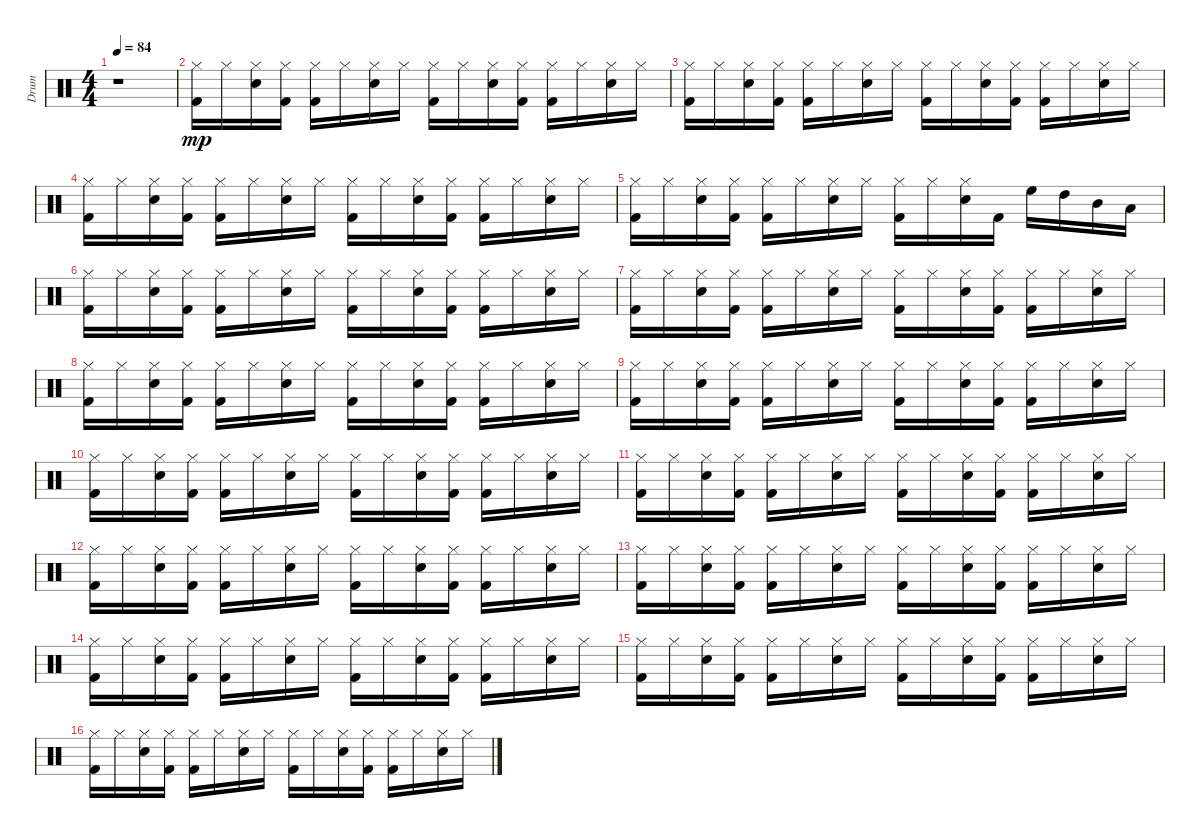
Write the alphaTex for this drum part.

\track ("Drum" "Drum") {instrument percussion}
\staff {score}
\articulation defaults
\ts (4 4)
\tempo 84
\clef neutral
\ks c
r.1{dy mp} |
("Kick (hit) 2" "Hi-Hat (closed)").16 "Hi-Hat (closed)".16 ("Snare (hit) 2" "Hi-Hat (closed)").16 ("Kick (hit) 2" "Hi-Hat (closed)").16 ("Kick (hit) 2" "Hi-Hat (closed)").16 "Hi-Hat (closed)".16 ("Snare (hit) 2" "Hi-Hat (closed)").16 "Hi-Hat (closed)".16 ("Kick (hit) 2" "Hi-Hat (closed)").16 "Hi-Hat (closed)".16 ("Snare (hit) 2" "Hi-Hat (closed)").16 ("Kick (hit) 2" "Hi-Hat (closed)").16 ("Kick (hit) 2" "Hi-Hat (closed)").16 "Hi-Hat (closed)".16 ("Snare (hit) 2" "Hi-Hat (closed)").16 "Hi-Hat (closed)".16 |
("Kick (hit) 2" "Hi-Hat (closed)").16 "Hi-Hat (closed)".16 ("Snare (hit) 2" "Hi-Hat (closed)").16 ("Kick (hit) 2" "Hi-Hat (closed)").16 ("Kick (hit) 2" "Hi-Hat (closed)").16 "Hi-Hat (closed)".16 ("Snare (hit) 2" "Hi-Hat (closed)").16 "Hi-Hat (closed)".16 ("Kick (hit) 2" "Hi-Hat (closed)").16 "Hi-Hat (closed)".16 ("Snare (hit) 2" "Hi-Hat (closed)").16 ("Kick (hit) 2" "Hi-Hat (closed)").16 ("Kick (hit) 2" "Hi-Hat (closed)").16 "Hi-Hat (closed)".16 ("Snare (hit) 2" "Hi-Hat (closed)").16 "Hi-Hat (closed)".16 |
("Kick (hit) 2" "Hi-Hat (closed)").16 "Hi-Hat (closed)".16 ("Snare (hit) 2" "Hi-Hat (closed)").16 ("Kick (hit) 2" "Hi-Hat (closed)").16 ("Kick (hit) 2" "Hi-Hat (closed)").16 "Hi-Hat (closed)".16 ("Snare (hit) 2" "Hi-Hat (closed)").16 "Hi-Hat (closed)".16 ("Kick (hit) 2" "Hi-Hat (closed)").16 "Hi-Hat (closed)".16 ("Snare (hit) 2" "Hi-Hat (closed)").16 ("Kick (hit) 2" "Hi-Hat (closed)").16 ("Kick (hit) 2" "Hi-Hat (closed)").16 "Hi-Hat (closed)".16 ("Snare (hit) 2" "Hi-Hat (closed)").16 "Hi-Hat (closed)".16 |
("Kick (hit) 2" "Hi-Hat (closed)").16 "Hi-Hat (closed)".16 ("Snare (hit) 2" "Hi-Hat (closed)").16 ("Kick (hit) 2" "Hi-Hat (closed)").16 ("Kick (hit) 2" "Hi-Hat (closed)").16 "Hi-Hat (closed)".16 ("Snare (hit) 2" "Hi-Hat (closed)").16 "Hi-Hat (closed)".16 ("Kick (hit) 2" "Hi-Hat (closed)").16 "Hi-Hat (closed)".16 ("Snare (hit) 2" "Hi-Hat (closed)").16 "Kick (hit) 2".16 "High Floor Tom (hit)".16 "High Tom (hit)".16 "Mid Tom (hit)".16 "Low Tom (hit)".16 |
("Kick (hit) 2" "Hi-Hat (closed)").16 "Hi-Hat (closed)".16 ("Snare (hit) 2" "Hi-Hat (closed)").16 ("Kick (hit) 2" "Hi-Hat (closed)").16 ("Kick (hit) 2" "Hi-Hat (closed)").16 "Hi-Hat (closed)".16 ("Snare (hit) 2" "Hi-Hat (closed)").16 "Hi-Hat (closed)".16 ("Kick (hit) 2" "Hi-Hat (closed)").16 "Hi-Hat (closed)".16 ("Snare (hit) 2" "Hi-Hat (closed)").16 ("Kick (hit) 2" "Hi-Hat (closed)").16 ("Kick (hit) 2" "Hi-Hat (closed)").16 "Hi-Hat (closed)".16 ("Snare (hit) 2" "Hi-Hat (closed)").16 "Hi-Hat (closed)".16 |
("Kick (hit) 2" "Hi-Hat (closed)").16 "Hi-Hat (closed)".16 ("Snare (hit) 2" "Hi-Hat (closed)").16 ("Kick (hit) 2" "Hi-Hat (closed)").16 ("Kick (hit) 2" "Hi-Hat (closed)").16 "Hi-Hat (closed)".16 ("Snare (hit) 2" "Hi-Hat (closed)").16 "Hi-Hat (closed)".16 ("Kick (hit) 2" "Hi-Hat (closed)").16 "Hi-Hat (closed)".16 ("Snare (hit) 2" "Hi-Hat (closed)").16 ("Kick (hit) 2" "Hi-Hat (closed)").16 ("Kick (hit) 2" "Hi-Hat (closed)").16 "Hi-Hat (closed)".16 ("Snare (hit) 2" "Hi-Hat (closed)").16 "Hi-Hat (closed)".16 |
("Kick (hit) 2" "Hi-Hat (closed)").16 "Hi-Hat (closed)".16 ("Snare (hit) 2" "Hi-Hat (closed)").16 ("Kick (hit) 2" "Hi-Hat (closed)").16 ("Kick (hit) 2" "Hi-Hat (closed)").16 "Hi-Hat (closed)".16 ("Snare (hit) 2" "Hi-Hat (closed)").16 "Hi-Hat (closed)".16 ("Kick (hit) 2" "Hi-Hat (closed)").16 "Hi-Hat (closed)".16 ("Snare (hit) 2" "Hi-Hat (closed)").16 ("Kick (hit) 2" "Hi-Hat (closed)").16 ("Kick (hit) 2" "Hi-Hat (closed)").16 "Hi-Hat (closed)".16 ("Snare (hit) 2" "Hi-Hat (closed)").16 "Hi-Hat (closed)".16 |
("Kick (hit) 2" "Hi-Hat (closed)").16 "Hi-Hat (closed)".16 ("Snare (hit) 2" "Hi-Hat (closed)").16 ("Kick (hit) 2" "Hi-Hat (closed)").16 ("Kick (hit) 2" "Hi-Hat (closed)").16 "Hi-Hat (closed)".16 ("Snare (hit) 2" "Hi-Hat (closed)").16 "Hi-Hat (closed)".16 ("Kick (hit) 2" "Hi-Hat (closed)").16 "Hi-Hat (closed)".16 ("Snare (hit) 2" "Hi-Hat (closed)").16 ("Kick (hit) 2" "Hi-Hat (closed)").16 ("Kick (hit) 2" "Hi-Hat (closed)").16 "Hi-Hat (closed)".16 ("Snare (hit) 2" "Hi-Hat (closed)").16 "Hi-Hat (closed)".16 |
("Kick (hit) 2" "Hi-Hat (closed)").16 "Hi-Hat (closed)".16 ("Snare (hit) 2" "Hi-Hat (closed)").16 ("Kick (hit) 2" "Hi-Hat (closed)").16 ("Kick (hit) 2" "Hi-Hat (closed)").16 "Hi-Hat (closed)".16 ("Snare (hit) 2" "Hi-Hat (closed)").16 "Hi-Hat (closed)".16 ("Kick (hit) 2" "Hi-Hat (closed)").16 "Hi-Hat (closed)".16 ("Snare (hit) 2" "Hi-Hat (closed)").16 ("Kick (hit) 2" "Hi-Hat (closed)").16 ("Kick (hit) 2" "Hi-Hat (closed)").16 "Hi-Hat (closed)".16 ("Snare (hit) 2" "Hi-Hat (closed)").16 "Hi-Hat (closed)".16 |
("Kick (hit) 2" "Hi-Hat (closed)").16 "Hi-Hat (closed)".16 ("Snare (hit) 2" "Hi-Hat (closed)").16 ("Kick (hit) 2" "Hi-Hat (closed)").16 ("Kick (hit) 2" "Hi-Hat (closed)").16 "Hi-Hat (closed)".16 ("Snare (hit) 2" "Hi-Hat (closed)").16 "Hi-Hat (closed)".16 ("Kick (hit) 2" "Hi-Hat (closed)").16 "Hi-Hat (closed)".16 ("Snare (hit) 2" "Hi-Hat (closed)").16 ("Kick (hit) 2" "Hi-Hat (closed)").16 ("Kick (hit) 2" "Hi-Hat (closed)").16 "Hi-Hat (closed)".16 ("Snare (hit) 2" "Hi-Hat (closed)").16 "Hi-Hat (closed)".16 |
("Kick (hit) 2" "Hi-Hat (closed)").16 "Hi-Hat (closed)".16 ("Snare (hit) 2" "Hi-Hat (closed)").16 ("Kick (hit) 2" "Hi-Hat (closed)").16 ("Kick (hit) 2" "Hi-Hat (closed)").16 "Hi-Hat (closed)".16 ("Snare (hit) 2" "Hi-Hat (closed)").16 "Hi-Hat (closed)".16 ("Kick (hit) 2" "Hi-Hat (closed)").16 "Hi-Hat (closed)".16 ("Snare (hit) 2" "Hi-Hat (closed)").16 ("Kick (hit) 2" "Hi-Hat (closed)").16 ("Kick (hit) 2" "Hi-Hat (closed)").16 "Hi-Hat (closed)".16 ("Snare (hit) 2" "Hi-Hat (closed)").16 "Hi-Hat (closed)".16 |
("Kick (hit) 2" "Hi-Hat (closed)").16 "Hi-Hat (closed)".16 ("Snare (hit) 2" "Hi-Hat (closed)").16 ("Kick (hit) 2" "Hi-Hat (closed)").16 ("Kick (hit) 2" "Hi-Hat (closed)").16 "Hi-Hat (closed)".16 ("Snare (hit) 2" "Hi-Hat (closed)").16 "Hi-Hat (closed)".16 ("Kick (hit) 2" "Hi-Hat (closed)").16 "Hi-Hat (closed)".16 ("Snare (hit) 2" "Hi-Hat (closed)").16 ("Kick (hit) 2" "Hi-Hat (closed)").16 ("Kick (hit) 2" "Hi-Hat (closed)").16 "Hi-Hat (closed)".16 ("Snare (hit) 2" "Hi-Hat (closed)").16 "Hi-Hat (closed)".16 |
("Kick (hit) 2" "Hi-Hat (closed)").16 "Hi-Hat (closed)".16 ("Snare (hit) 2" "Hi-Hat (closed)").16 ("Kick (hit) 2" "Hi-Hat (closed)").16 ("Kick (hit) 2" "Hi-Hat (closed)").16 "Hi-Hat (closed)".16 ("Snare (hit) 2" "Hi-Hat (closed)").16 "Hi-Hat (closed)".16 ("Kick (hit) 2" "Hi-Hat (closed)").16 "Hi-Hat (closed)".16 ("Snare (hit) 2" "Hi-Hat (closed)").16 ("Kick (hit) 2" "Hi-Hat (closed)").16 ("Kick (hit) 2" "Hi-Hat (closed)").16 "Hi-Hat (closed)".16 ("Snare (hit) 2" "Hi-Hat (closed)").16 "Hi-Hat (closed)".16 |
("Kick (hit) 2" "Hi-Hat (closed)").16 "Hi-Hat (closed)".16 ("Snare (hit) 2" "Hi-Hat (closed)").16 ("Kick (hit) 2" "Hi-Hat (closed)").16 ("Kick (hit) 2" "Hi-Hat (closed)").16 "Hi-Hat (closed)".16 ("Snare (hit) 2" "Hi-Hat (closed)").16 "Hi-Hat (closed)".16 ("Kick (hit) 2" "Hi-Hat (closed)").16 "Hi-Hat (closed)".16 ("Snare (hit) 2" "Hi-Hat (closed)").16 ("Kick (hit) 2" "Hi-Hat (closed)").16 ("Kick (hit) 2" "Hi-Hat (closed)").16 "Hi-Hat (closed)".16 ("Snare (hit) 2" "Hi-Hat (closed)").16 "Hi-Hat (closed)".16 |
("Kick (hit) 2" "Hi-Hat (closed)").16 "Hi-Hat (closed)".16 ("Snare (hit) 2" "Hi-Hat (closed)").16 ("Kick (hit) 2" "Hi-Hat (closed)").16 ("Kick (hit) 2" "Hi-Hat (closed)").16 "Hi-Hat (closed)".16 ("Snare (hit) 2" "Hi-Hat (closed)").16 "Hi-Hat (closed)".16 ("Kick (hit) 2" "Hi-Hat (closed)").16 "Hi-Hat (closed)".16 ("Snare (hit) 2" "Hi-Hat (closed)").16 ("Kick (hit) 2" "Hi-Hat (closed)").16 ("Kick (hit) 2" "Hi-Hat (closed)").16 "Hi-Hat (closed)".16 ("Snare (hit) 2" "Hi-Hat (closed)").16 "Hi-Hat (closed)".16
